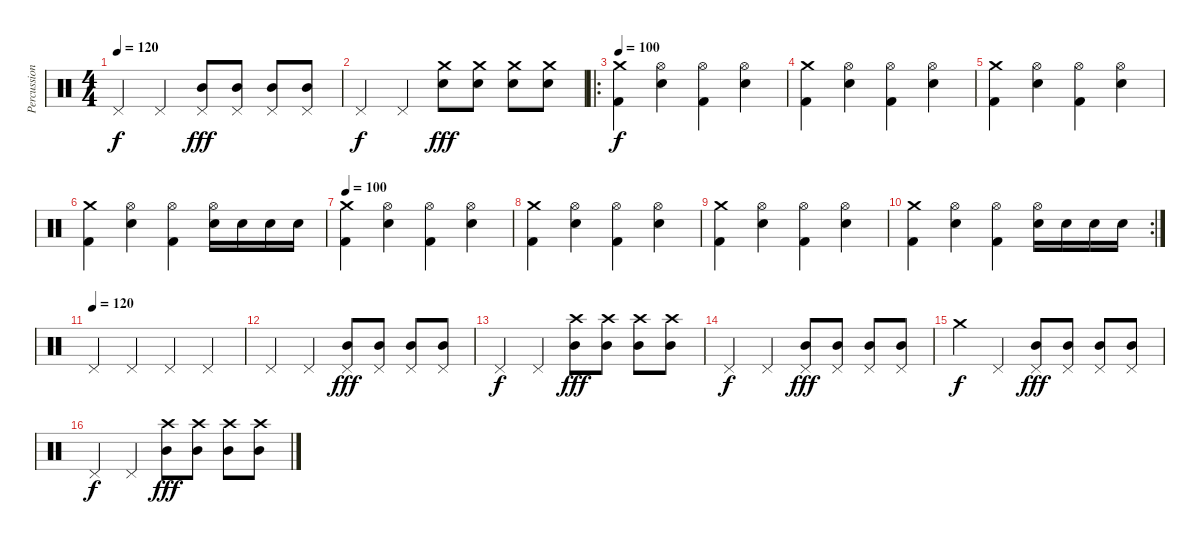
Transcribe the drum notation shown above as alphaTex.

\track ("Percussion" "Percussion") {instrument percussion}
\staff {score}
\articulation defaults
\ts (4 4)
\tempo 120
\clef neutral
\ks c "Pedal Hi-Hat (hit)".4{dy f} "Pedal Hi-Hat (hit)".4
("Pedal Hi-Hat (hit)" "Mid Tom (hit)").8{dy fff} ("Pedal Hi-Hat (hit)" "Mid Tom (hit)").8 ("Pedal Hi-Hat (hit)" "Mid Tom (hit)").8 ("Pedal Hi-Hat (hit)" "Mid Tom (hit)").8 |
"Pedal Hi-Hat (hit)".4{dy f} "Pedal Hi-Hat (hit)".4 ("Crash medium (hit)" "Electric Snare (hit)").8{dy fff} ("Crash medium (hit)" "Electric Snare (hit)").8 ("Crash medium (hit)" "Electric Snare (hit)").8 ("Crash medium (hit)" "Electric Snare (hit)").8 |
\ro
\tempo 100
("Crash medium (hit)" "Kick (hit) 2").4{dy f} ("Hi-Hat (open)" "Electric Snare (hit)").4 ("Hi-Hat (open)" "Kick (hit) 2").4 ("Hi-Hat (open)" "Electric Snare (hit)").4 |
("Crash medium (hit)" "Kick (hit) 2").4 ("Hi-Hat (open)" "Electric Snare (hit)").4 ("Hi-Hat (open)" "Kick (hit) 2").4 ("Hi-Hat (open)" "Electric Snare (hit)").4 |
("Crash medium (hit)" "Kick (hit) 2").4 ("Hi-Hat (open)" "Electric Snare (hit)").4 ("Hi-Hat (open)" "Kick (hit) 2").4 ("Hi-Hat (open)" "Electric Snare (hit)").4 |
("Crash medium (hit)" "Kick (hit) 2").4 ("Hi-Hat (open)" "Electric Snare (hit)").4 ("Hi-Hat (open)" "Kick (hit) 2").4 ("Hi-Hat (open)" "Electric Snare (hit)").16 "Electric Snare (hit)".16 "Electric Snare (hit)".16 "Electric Snare (hit)".16 |
\tempo 100
("Crash medium (hit)" "Kick (hit) 2").4 ("Hi-Hat (open)" "Electric Snare (hit)").4 ("Hi-Hat (open)" "Kick (hit) 2").4 ("Hi-Hat (open)" "Electric Snare (hit)").4 |
("Crash medium (hit)" "Kick (hit) 2").4 ("Hi-Hat (open)" "Electric Snare (hit)").4 ("Hi-Hat (open)" "Kick (hit) 2").4 ("Hi-Hat (open)" "Electric Snare (hit)").4 |
("Crash medium (hit)" "Kick (hit) 2").4 ("Hi-Hat (open)" "Electric Snare (hit)").4 ("Hi-Hat (open)" "Kick (hit) 2").4 ("Hi-Hat (open)" "Electric Snare (hit)").4 |
\rc 2
("Crash medium (hit)" "Kick (hit) 2").4 ("Hi-Hat (open)" "Electric Snare (hit)").4 ("Hi-Hat (open)" "Kick (hit) 2").4 ("Hi-Hat (open)" "Electric Snare (hit)").16 "Electric Snare (hit)".16 "Electric Snare (hit)".16 "Electric Snare (hit)".16 |
\tempo (120)
"Pedal Hi-Hat (hit)".4 "Pedal Hi-Hat (hit)".4 "Pedal Hi-Hat (hit)".4 "Pedal Hi-Hat (hit)".4 |
"Pedal Hi-Hat (hit)".4 "Pedal Hi-Hat (hit)".4 ("Pedal Hi-Hat (hit)" "Mid Tom (hit)").8{dy fff} ("Pedal Hi-Hat (hit)" "Mid Tom (hit)").8 ("Pedal Hi-Hat (hit)" "Mid Tom (hit)").8 ("Pedal Hi-Hat (hit)" "Mid Tom (hit)").8 |
"Pedal Hi-Hat (hit)".4{dy f} "Pedal Hi-Hat (hit)".4 ("Crash high (hit)" "Mid Tom (hit)").8{dy fff} ("Crash high (hit)" "Mid Tom (hit)").8 ("Crash high (hit)" "Mid Tom (hit)").8 ("Crash high (hit)" "Mid Tom (hit)").8 |
"Pedal Hi-Hat (hit)".4{dy f} "Pedal Hi-Hat (hit)".4 ("Pedal Hi-Hat (hit)" "Mid Tom (hit)").8{dy fff} ("Pedal Hi-Hat (hit)" "Mid Tom (hit)").8 ("Pedal Hi-Hat (hit)" "Mid Tom (hit)").8 ("Pedal Hi-Hat (hit)" "Mid Tom (hit)").8 |
"Crash medium (hit)".4{dy f} "Pedal Hi-Hat (hit)".4 ("Pedal Hi-Hat (hit)" "Mid Tom (hit)").8{dy fff} ("Pedal Hi-Hat (hit)" "Mid Tom (hit)").8 ("Pedal Hi-Hat (hit)" "Mid Tom (hit)").8 ("Pedal Hi-Hat (hit)" "Mid Tom (hit)").8 |
"Pedal Hi-Hat (hit)".4{dy f} "Pedal Hi-Hat (hit)".4 ("Crash high (hit)" "Mid Tom (hit)").8{dy fff} ("Crash high (hit)" "Mid Tom (hit)").8 ("Crash high (hit)" "Mid Tom (hit)").8 ("Crash high (hit)" "Mid Tom (hit)").8
